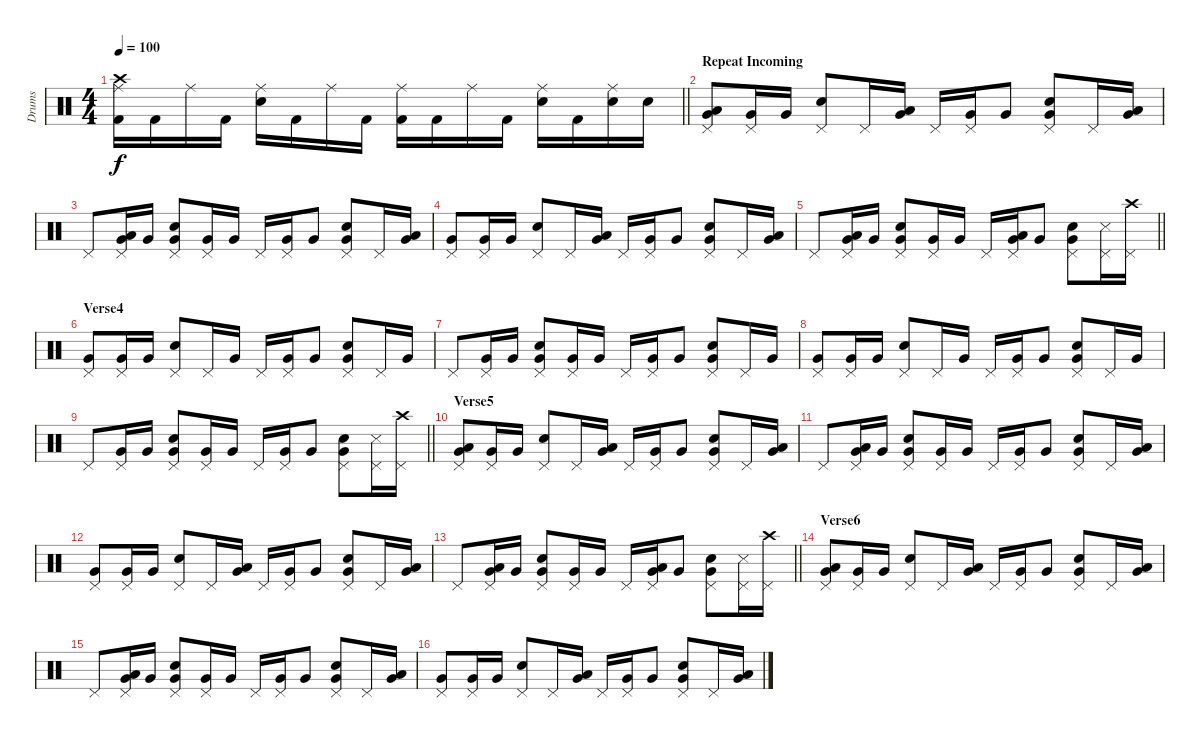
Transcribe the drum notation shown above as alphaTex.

\track ("Drums" "Drums") {instrument percussion}
\staff {score}
\articulation defaults
\ts (4 4)
\tempo 100
\clef neutral
\barLineRight lightlight
\ks c
("Crash high (hit)" "Kick (hit) 2" "Ride (middle)").16{dy f} "Kick (hit) 2".16 "Ride (middle)".16 "Kick (hit) 2".16 ("Snare (hit) 2" "Ride (middle)").16 "Kick (hit) 2".16 "Ride (middle)".16 "Kick (hit) 2".16 ("Kick (hit) 2" "Ride (middle)").16 "Kick (hit) 2".16 "Ride (middle)".16 "Kick (hit) 2".16 ("Snare (hit) 2" "Ride (middle)").16 "Kick (hit) 2".16 ("Snare (hit) 2" "Ride (middle)").16 "Snare (hit) 2".16 |
\section ("" "Repeat Incoming")
("Low Floor Tom (hit)" "Very Low Tom (hit)" "Pedal Hi-Hat (hit)").8 ("Very Low Tom (hit)" "Pedal Hi-Hat (hit)").16 "Very Low Tom (hit)".16 ("Snare (hit) 2" "Pedal Hi-Hat (hit)").8 "Pedal Hi-Hat (hit)".16 ("Low Floor Tom (hit)" "Very Low Tom (hit)").16 "Pedal Hi-Hat (hit)".16 ("Very Low Tom (hit)" "Pedal Hi-Hat (hit)").16 "Very Low Tom (hit)".8 ("Snare (hit) 2" "Very Low Tom (hit)" "Pedal Hi-Hat (hit)").8 "Pedal Hi-Hat (hit)".16 ("Low Floor Tom (hit)" "Very Low Tom (hit)").16 |
"Pedal Hi-Hat (hit)".8 ("Low Floor Tom (hit)" "Very Low Tom (hit)" "Pedal Hi-Hat (hit)").16 "Very Low Tom (hit)".16 ("Snare (hit) 2" "Very Low Tom (hit)" "Pedal Hi-Hat (hit)").8 ("Very Low Tom (hit)" "Pedal Hi-Hat (hit)").16 "Very Low Tom (hit)".16 "Pedal Hi-Hat (hit)".16 ("Very Low Tom (hit)" "Pedal Hi-Hat (hit)").16 "Very Low Tom (hit)".8 ("Snare (hit) 2" "Very Low Tom (hit)" "Pedal Hi-Hat (hit)").8 "Pedal Hi-Hat (hit)".16 ("Low Floor Tom (hit)" "Very Low Tom (hit)").16 |
("Very Low Tom (hit)" "Pedal Hi-Hat (hit)").8 ("Very Low Tom (hit)" "Pedal Hi-Hat (hit)").16 "Very Low Tom (hit)".16 ("Snare (hit) 2" "Pedal Hi-Hat (hit)").8 "Pedal Hi-Hat (hit)".16 ("Low Floor Tom (hit)" "Very Low Tom (hit)").16 "Pedal Hi-Hat (hit)".16 ("Very Low Tom (hit)" "Pedal Hi-Hat (hit)").16 "Very Low Tom (hit)".8 ("Snare (hit) 2" "Very Low Tom (hit)" "Pedal Hi-Hat (hit)").8 "Pedal Hi-Hat (hit)".16 ("Low Floor Tom (hit)" "Very Low Tom (hit)").16 |
\barLineRight lightlight "Pedal Hi-Hat (hit)".8
("Low Floor Tom (hit)" "Very Low Tom (hit)" "Pedal Hi-Hat (hit)").16 "Very Low Tom (hit)".16 ("Snare (hit) 2" "Very Low Tom (hit)" "Pedal Hi-Hat (hit)").8 ("Very Low Tom (hit)" "Pedal Hi-Hat (hit)").16 "Very Low Tom (hit)".16 "Pedal Hi-Hat (hit)".16 ("Low Floor Tom (hit)" "Very Low Tom (hit)" "Pedal Hi-Hat (hit)").16 "Very Low Tom (hit)".8 ("Snare (hit) 2" "Very Low Tom (hit)" "Pedal Hi-Hat (hit)").8 ("Snare (side stick) 3" "Pedal Hi-Hat (hit)").16 ("Crash high (hit)" "Pedal Hi-Hat (hit)").16 |
\section ("" "Verse4")
("Very Low Tom (hit)" "Pedal Hi-Hat (hit)").8 ("Very Low Tom (hit)" "Pedal Hi-Hat (hit)").16 "Very Low Tom (hit)".16 ("Snare (hit) 2" "Pedal Hi-Hat (hit)").8 "Pedal Hi-Hat (hit)".16 "Very Low Tom (hit)".16 "Pedal Hi-Hat (hit)".16 ("Very Low Tom (hit)" "Pedal Hi-Hat (hit)").16 "Very Low Tom (hit)".8 ("Snare (hit) 2" "Very Low Tom (hit)" "Pedal Hi-Hat (hit)").8 "Pedal Hi-Hat (hit)".16 "Very Low Tom (hit)".16 |
"Pedal Hi-Hat (hit)".8 ("Very Low Tom (hit)" "Pedal Hi-Hat (hit)").16 "Very Low Tom (hit)".16 ("Snare (hit) 2" "Very Low Tom (hit)" "Pedal Hi-Hat (hit)").8 ("Very Low Tom (hit)" "Pedal Hi-Hat (hit)").16 "Very Low Tom (hit)".16 "Pedal Hi-Hat (hit)".16 ("Very Low Tom (hit)" "Pedal Hi-Hat (hit)").16 "Very Low Tom (hit)".8 ("Snare (hit) 2" "Very Low Tom (hit)" "Pedal Hi-Hat (hit)").8 "Pedal Hi-Hat (hit)".16 "Very Low Tom (hit)".16 |
("Very Low Tom (hit)" "Pedal Hi-Hat (hit)").8 ("Very Low Tom (hit)" "Pedal Hi-Hat (hit)").16 "Very Low Tom (hit)".16 ("Snare (hit) 2" "Pedal Hi-Hat (hit)").8 "Pedal Hi-Hat (hit)".16 "Very Low Tom (hit)".16 "Pedal Hi-Hat (hit)".16 ("Very Low Tom (hit)" "Pedal Hi-Hat (hit)").16 "Very Low Tom (hit)".8 ("Snare (hit) 2" "Very Low Tom (hit)" "Pedal Hi-Hat (hit)").8 "Pedal Hi-Hat (hit)".16 "Very Low Tom (hit)".16 |
\barLineRight lightlight "Pedal Hi-Hat (hit)".8
("Very Low Tom (hit)" "Pedal Hi-Hat (hit)").16 "Very Low Tom (hit)".16 ("Snare (hit) 2" "Very Low Tom (hit)" "Pedal Hi-Hat (hit)").8 ("Very Low Tom (hit)" "Pedal Hi-Hat (hit)").16 "Very Low Tom (hit)".16 "Pedal Hi-Hat (hit)".16 ("Very Low Tom (hit)" "Pedal Hi-Hat (hit)").16 "Very Low Tom (hit)".8 ("Snare (hit) 2" "Very Low Tom (hit)" "Pedal Hi-Hat (hit)").8 ("Snare (side stick) 3" "Pedal Hi-Hat (hit)").16 ("Crash high (hit)" "Pedal Hi-Hat (hit)").16 |
\section ("" "Verse5")
("Low Floor Tom (hit)" "Very Low Tom (hit)" "Pedal Hi-Hat (hit)").8 ("Very Low Tom (hit)" "Pedal Hi-Hat (hit)").16 "Very Low Tom (hit)".16 ("Snare (hit) 2" "Pedal Hi-Hat (hit)").8 "Pedal Hi-Hat (hit)".16 ("Low Floor Tom (hit)" "Very Low Tom (hit)").16 "Pedal Hi-Hat (hit)".16 ("Very Low Tom (hit)" "Pedal Hi-Hat (hit)").16 "Very Low Tom (hit)".8 ("Snare (hit) 2" "Very Low Tom (hit)" "Pedal Hi-Hat (hit)").8 "Pedal Hi-Hat (hit)".16 ("Low Floor Tom (hit)" "Very Low Tom (hit)").16 |
"Pedal Hi-Hat (hit)".8 ("Low Floor Tom (hit)" "Very Low Tom (hit)" "Pedal Hi-Hat (hit)").16 "Very Low Tom (hit)".16 ("Snare (hit) 2" "Very Low Tom (hit)" "Pedal Hi-Hat (hit)").8 ("Very Low Tom (hit)" "Pedal Hi-Hat (hit)").16 "Very Low Tom (hit)".16 "Pedal Hi-Hat (hit)".16 ("Very Low Tom (hit)" "Pedal Hi-Hat (hit)").16 "Very Low Tom (hit)".8 ("Snare (hit) 2" "Very Low Tom (hit)" "Pedal Hi-Hat (hit)").8 "Pedal Hi-Hat (hit)".16 ("Low Floor Tom (hit)" "Very Low Tom (hit)").16 |
("Very Low Tom (hit)" "Pedal Hi-Hat (hit)").8 ("Very Low Tom (hit)" "Pedal Hi-Hat (hit)").16 "Very Low Tom (hit)".16 ("Snare (hit) 2" "Pedal Hi-Hat (hit)").8 "Pedal Hi-Hat (hit)".16 ("Low Floor Tom (hit)" "Very Low Tom (hit)").16 "Pedal Hi-Hat (hit)".16 ("Very Low Tom (hit)" "Pedal Hi-Hat (hit)").16 "Very Low Tom (hit)".8 ("Snare (hit) 2" "Very Low Tom (hit)" "Pedal Hi-Hat (hit)").8 "Pedal Hi-Hat (hit)".16 ("Low Floor Tom (hit)" "Very Low Tom (hit)").16 |
\barLineRight lightlight "Pedal Hi-Hat (hit)".8
("Low Floor Tom (hit)" "Very Low Tom (hit)" "Pedal Hi-Hat (hit)").16 "Very Low Tom (hit)".16 ("Snare (hit) 2" "Very Low Tom (hit)" "Pedal Hi-Hat (hit)").8 ("Very Low Tom (hit)" "Pedal Hi-Hat (hit)").16 "Very Low Tom (hit)".16 "Pedal Hi-Hat (hit)".16 ("Low Floor Tom (hit)" "Very Low Tom (hit)" "Pedal Hi-Hat (hit)").16 "Very Low Tom (hit)".8 ("Snare (hit) 2" "Very Low Tom (hit)" "Pedal Hi-Hat (hit)").8 ("Snare (side stick) 3" "Pedal Hi-Hat (hit)").16 ("Crash high (hit)" "Pedal Hi-Hat (hit)").16 |
\section ("" "Verse6")
("Low Floor Tom (hit)" "Very Low Tom (hit)" "Pedal Hi-Hat (hit)").8 ("Very Low Tom (hit)" "Pedal Hi-Hat (hit)").16 "Very Low Tom (hit)".16 ("Snare (hit) 2" "Pedal Hi-Hat (hit)").8 "Pedal Hi-Hat (hit)".16 ("Low Floor Tom (hit)" "Very Low Tom (hit)").16 "Pedal Hi-Hat (hit)".16 ("Very Low Tom (hit)" "Pedal Hi-Hat (hit)").16 "Very Low Tom (hit)".8 ("Snare (hit) 2" "Very Low Tom (hit)" "Pedal Hi-Hat (hit)").8 "Pedal Hi-Hat (hit)".16 ("Low Floor Tom (hit)" "Very Low Tom (hit)").16 |
"Pedal Hi-Hat (hit)".8 ("Low Floor Tom (hit)" "Very Low Tom (hit)" "Pedal Hi-Hat (hit)").16 "Very Low Tom (hit)".16 ("Snare (hit) 2" "Very Low Tom (hit)" "Pedal Hi-Hat (hit)").8 ("Very Low Tom (hit)" "Pedal Hi-Hat (hit)").16 "Very Low Tom (hit)".16 "Pedal Hi-Hat (hit)".16 ("Very Low Tom (hit)" "Pedal Hi-Hat (hit)").16 "Very Low Tom (hit)".8 ("Snare (hit) 2" "Very Low Tom (hit)" "Pedal Hi-Hat (hit)").8 "Pedal Hi-Hat (hit)".16 ("Low Floor Tom (hit)" "Very Low Tom (hit)").16 |
("Very Low Tom (hit)" "Pedal Hi-Hat (hit)").8 ("Very Low Tom (hit)" "Pedal Hi-Hat (hit)").16 "Very Low Tom (hit)".16 ("Snare (hit) 2" "Pedal Hi-Hat (hit)").8 "Pedal Hi-Hat (hit)".16 ("Low Floor Tom (hit)" "Very Low Tom (hit)").16 "Pedal Hi-Hat (hit)".16 ("Very Low Tom (hit)" "Pedal Hi-Hat (hit)").16 "Very Low Tom (hit)".8 ("Snare (hit) 2" "Very Low Tom (hit)" "Pedal Hi-Hat (hit)").8 "Pedal Hi-Hat (hit)".16 ("Low Floor Tom (hit)" "Very Low Tom (hit)").16
